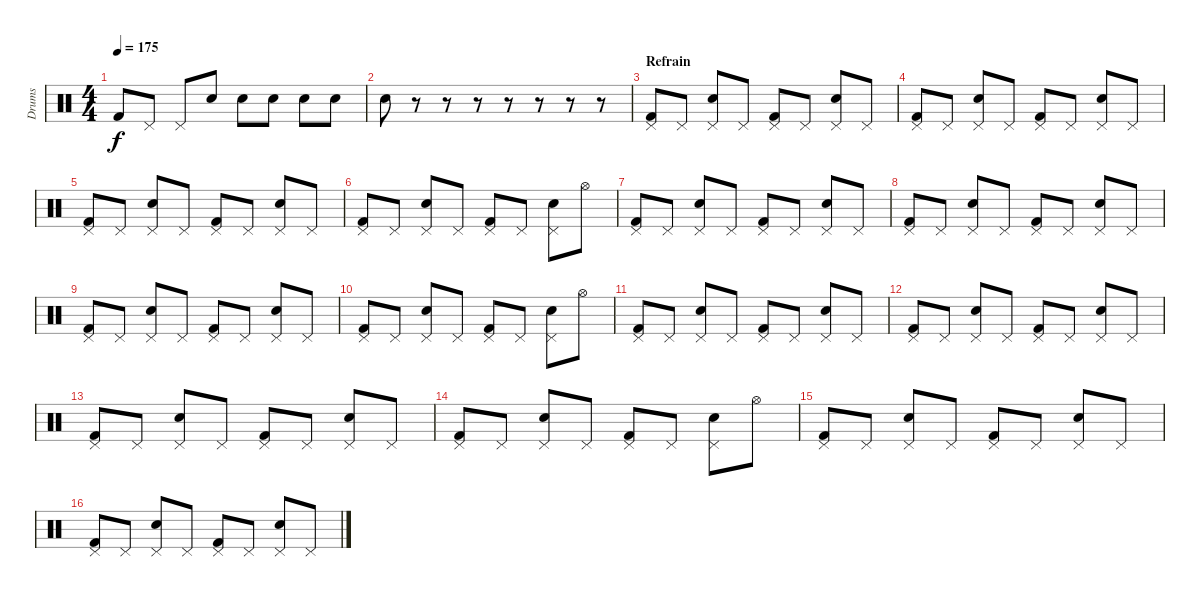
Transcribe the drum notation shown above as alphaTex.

\track ("Drums" "Drums") {instrument percussion}
\staff {score}
\articulation defaults
\ts (4 4)
\tempo 175
\clef neutral
\ks c "Kick (hit) 2".8{dy f} "Pedal Hi-Hat (hit)".8 "Pedal Hi-Hat (hit)".8 "Snare (hit) 2".8 "Snare (hit) 2".8 "Snare (hit) 2".8 "Snare (hit) 2".8 "Snare (hit) 2".8
|
"Snare (hit) 2".8 r.8 r.8 r.8 r.8 r.8 r.8 r.8 |
\section ("" "Refrain")
("Pedal Hi-Hat (hit)" "Kick (hit) 2").8 "Pedal Hi-Hat (hit)".8 ("Pedal Hi-Hat (hit)" "Snare (hit) 2").8 "Pedal Hi-Hat (hit)".8 ("Pedal Hi-Hat (hit)" "Kick (hit) 2").8 "Pedal Hi-Hat (hit)".8 ("Pedal Hi-Hat (hit)" "Snare (hit) 2").8 "Pedal Hi-Hat (hit)".8 |
("Pedal Hi-Hat (hit)" "Kick (hit) 2").8 "Pedal Hi-Hat (hit)".8 ("Pedal Hi-Hat (hit)" "Snare (hit) 2").8 "Pedal Hi-Hat (hit)".8 ("Pedal Hi-Hat (hit)" "Kick (hit) 2").8 "Pedal Hi-Hat (hit)".8 ("Pedal Hi-Hat (hit)" "Snare (hit) 2").8 "Pedal Hi-Hat (hit)".8 |
("Pedal Hi-Hat (hit)" "Kick (hit) 2").8 "Pedal Hi-Hat (hit)".8 ("Pedal Hi-Hat (hit)" "Snare (hit) 2").8 "Pedal Hi-Hat (hit)".8 ("Pedal Hi-Hat (hit)" "Kick (hit) 2").8 "Pedal Hi-Hat (hit)".8 ("Pedal Hi-Hat (hit)" "Snare (hit) 2").8 "Pedal Hi-Hat (hit)".8 |
("Pedal Hi-Hat (hit)" "Kick (hit) 2").8 "Pedal Hi-Hat (hit)".8 ("Pedal Hi-Hat (hit)" "Snare (hit) 2").8 "Pedal Hi-Hat (hit)".8 ("Pedal Hi-Hat (hit)" "Kick (hit) 2").8 "Pedal Hi-Hat (hit)".8 ("Pedal Hi-Hat (hit)" "Snare (hit) 2").8 "Hi-Hat (open)".8 |
("Pedal Hi-Hat (hit)" "Kick (hit) 2").8 "Pedal Hi-Hat (hit)".8 ("Pedal Hi-Hat (hit)" "Snare (hit) 2").8 "Pedal Hi-Hat (hit)".8 ("Pedal Hi-Hat (hit)" "Kick (hit) 2").8 "Pedal Hi-Hat (hit)".8 ("Pedal Hi-Hat (hit)" "Snare (hit) 2").8 "Pedal Hi-Hat (hit)".8 |
("Pedal Hi-Hat (hit)" "Kick (hit) 2").8 "Pedal Hi-Hat (hit)".8 ("Pedal Hi-Hat (hit)" "Snare (hit) 2").8 "Pedal Hi-Hat (hit)".8 ("Pedal Hi-Hat (hit)" "Kick (hit) 2").8 "Pedal Hi-Hat (hit)".8 ("Pedal Hi-Hat (hit)" "Snare (hit) 2").8 "Pedal Hi-Hat (hit)".8 |
("Pedal Hi-Hat (hit)" "Kick (hit) 2").8 "Pedal Hi-Hat (hit)".8 ("Pedal Hi-Hat (hit)" "Snare (hit) 2").8 "Pedal Hi-Hat (hit)".8 ("Pedal Hi-Hat (hit)" "Kick (hit) 2").8 "Pedal Hi-Hat (hit)".8 ("Pedal Hi-Hat (hit)" "Snare (hit) 2").8 "Pedal Hi-Hat (hit)".8 |
("Pedal Hi-Hat (hit)" "Kick (hit) 2").8 "Pedal Hi-Hat (hit)".8 ("Pedal Hi-Hat (hit)" "Snare (hit) 2").8 "Pedal Hi-Hat (hit)".8 ("Pedal Hi-Hat (hit)" "Kick (hit) 2").8 "Pedal Hi-Hat (hit)".8 ("Pedal Hi-Hat (hit)" "Snare (hit) 2").8 "Hi-Hat (open)".8 |
("Pedal Hi-Hat (hit)" "Kick (hit) 2").8 "Pedal Hi-Hat (hit)".8 ("Pedal Hi-Hat (hit)" "Snare (hit) 2").8 "Pedal Hi-Hat (hit)".8 ("Pedal Hi-Hat (hit)" "Kick (hit) 2").8 "Pedal Hi-Hat (hit)".8 ("Pedal Hi-Hat (hit)" "Snare (hit) 2").8 "Pedal Hi-Hat (hit)".8 |
("Pedal Hi-Hat (hit)" "Kick (hit) 2").8 "Pedal Hi-Hat (hit)".8 ("Pedal Hi-Hat (hit)" "Snare (hit) 2").8 "Pedal Hi-Hat (hit)".8 ("Pedal Hi-Hat (hit)" "Kick (hit) 2").8 "Pedal Hi-Hat (hit)".8 ("Pedal Hi-Hat (hit)" "Snare (hit) 2").8 "Pedal Hi-Hat (hit)".8 |
("Pedal Hi-Hat (hit)" "Kick (hit) 2").8 "Pedal Hi-Hat (hit)".8 ("Pedal Hi-Hat (hit)" "Snare (hit) 2").8 "Pedal Hi-Hat (hit)".8 ("Pedal Hi-Hat (hit)" "Kick (hit) 2").8 "Pedal Hi-Hat (hit)".8 ("Pedal Hi-Hat (hit)" "Snare (hit) 2").8 "Pedal Hi-Hat (hit)".8 |
("Pedal Hi-Hat (hit)" "Kick (hit) 2").8 "Pedal Hi-Hat (hit)".8 ("Pedal Hi-Hat (hit)" "Snare (hit) 2").8 "Pedal Hi-Hat (hit)".8 ("Pedal Hi-Hat (hit)" "Kick (hit) 2").8 "Pedal Hi-Hat (hit)".8 ("Pedal Hi-Hat (hit)" "Snare (hit) 2").8 "Hi-Hat (open)".8 |
("Pedal Hi-Hat (hit)" "Kick (hit) 2").8 "Pedal Hi-Hat (hit)".8 ("Pedal Hi-Hat (hit)" "Snare (hit) 2").8 "Pedal Hi-Hat (hit)".8 ("Pedal Hi-Hat (hit)" "Kick (hit) 2").8 "Pedal Hi-Hat (hit)".8 ("Pedal Hi-Hat (hit)" "Snare (hit) 2").8 "Pedal Hi-Hat (hit)".8 |
("Pedal Hi-Hat (hit)" "Kick (hit) 2").8 "Pedal Hi-Hat (hit)".8 ("Pedal Hi-Hat (hit)" "Snare (hit) 2").8 "Pedal Hi-Hat (hit)".8 ("Pedal Hi-Hat (hit)" "Kick (hit) 2").8 "Pedal Hi-Hat (hit)".8 ("Pedal Hi-Hat (hit)" "Snare (hit) 2").8 "Pedal Hi-Hat (hit)".8
